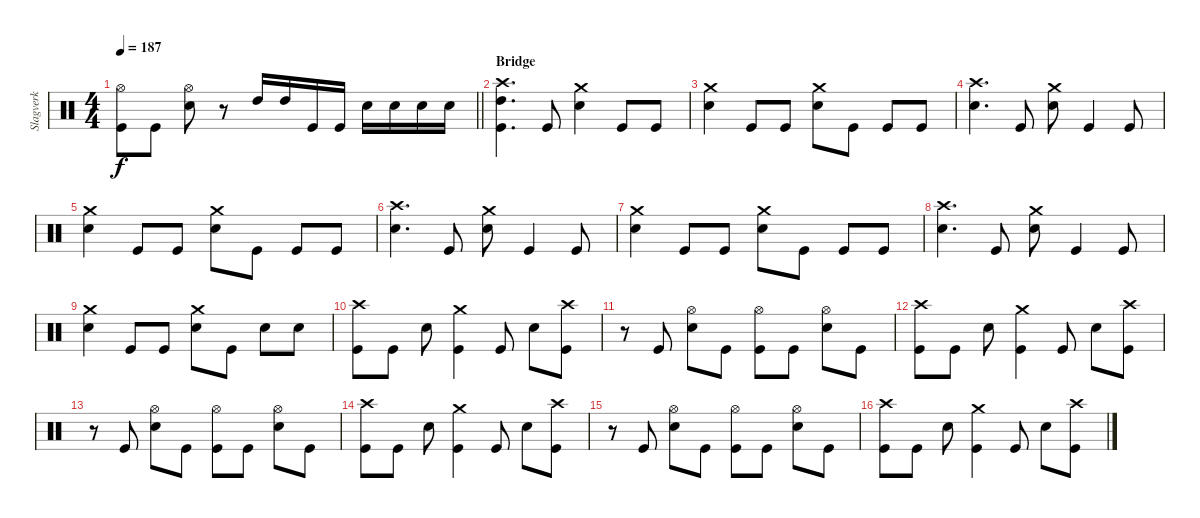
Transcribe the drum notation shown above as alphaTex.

\track ("Slagverk" "Slagverk") {instrument percussion}
\staff {score}
\articulation defaults
\ts (4 4)
\tempo 187
\clef neutral
\barLineRight lightlight
\ks c
("Hi-Hat (open)" "Kick (hit)").8{dy f} "Kick (hit)".8 ("Hi-Hat (open)" "Electric Snare (hit)").8 r.8 "High Tom (hit)".16 "High Tom (hit)".16 "Kick (hit)".16 "Kick (hit)".16 "Electric Snare (hit)".16 "Electric Snare (hit)".16 "Electric Snare (hit)".16 "Electric Snare (hit)".16 |
\section ("" "Bridge")
("Crash high (hit)" "High Tom (hit)" "Kick (hit)").4{d} "Kick (hit)".8 ("Crash medium (hit)" "Electric Snare (hit)").4 "Kick (hit)".8 "Kick (hit)".8 |
("Crash medium (hit)" "Electric Snare (hit)").4 "Kick (hit)".8 "Kick (hit)".8 ("Crash medium (hit)" "Electric Snare (hit)").8 "Kick (hit)".8 "Kick (hit)".8 "Kick (hit)".8 |
("Crash high (hit)" "Electric Snare (hit)").4{d} "Kick (hit)".8 ("Crash medium (hit)" "Electric Snare (hit)").8 "Kick (hit)".4 "Kick (hit)".8 |
("Crash medium (hit)" "Electric Snare (hit)").4 "Kick (hit)".8 "Kick (hit)".8 ("Crash medium (hit)" "Electric Snare (hit)").8 "Kick (hit)".8 "Kick (hit)".8 "Kick (hit)".8 |
("Crash high (hit)" "Electric Snare (hit)").4{d} "Kick (hit)".8 ("Crash medium (hit)" "Electric Snare (hit)").8 "Kick (hit)".4 "Kick (hit)".8 |
("Crash medium (hit)" "Electric Snare (hit)").4 "Kick (hit)".8 "Kick (hit)".8 ("Crash medium (hit)" "Electric Snare (hit)").8 "Kick (hit)".8 "Kick (hit)".8 "Kick (hit)".8 |
("Crash high (hit)" "Electric Snare (hit)").4{d} "Kick (hit)".8 ("Crash medium (hit)" "Electric Snare (hit)").8 "Kick (hit)".4 "Kick (hit)".8 |
("Crash medium (hit)" "Electric Snare (hit)").4 "Kick (hit)".8 "Kick (hit)".8 ("Crash medium (hit)" "Electric Snare (hit)").8 "Kick (hit)".8 "Electric Snare (hit)".8 "Electric Snare (hit)".8 |
("Crash high (hit)" "Kick (hit)").8 "Kick (hit)".8 "Electric Snare (hit)".8 ("Crash medium (hit)" "Kick (hit)").4 "Kick (hit)".8 "Electric Snare (hit)".8 ("Crash high (hit)" "Kick (hit)").8 |
r.8 "Kick (hit)".8 ("Hi-Hat (open)" "Electric Snare (hit)").8 "Kick (hit)".8 ("Hi-Hat (open)" "Kick (hit)").8 "Kick (hit)".8 ("Hi-Hat (open)" "Electric Snare (hit)").8 "Kick (hit)".8 |
("Crash high (hit)" "Kick (hit)").8 "Kick (hit)".8 "Electric Snare (hit)".8 ("Crash medium (hit)" "Kick (hit)").4 "Kick (hit)".8 "Electric Snare (hit)".8 ("Crash high (hit)" "Kick (hit)").8 |
r.8 "Kick (hit)".8 ("Hi-Hat (open)" "Electric Snare (hit)").8 "Kick (hit)".8 ("Hi-Hat (open)" "Kick (hit)").8 "Kick (hit)".8 ("Hi-Hat (open)" "Electric Snare (hit)").8 "Kick (hit)".8 |
("Crash high (hit)" "Kick (hit)").8 "Kick (hit)".8 "Electric Snare (hit)".8 ("Crash medium (hit)" "Kick (hit)").4 "Kick (hit)".8 "Electric Snare (hit)".8 ("Crash high (hit)" "Kick (hit)").8 |
r.8 "Kick (hit)".8 ("Hi-Hat (open)" "Electric Snare (hit)").8 "Kick (hit)".8 ("Hi-Hat (open)" "Kick (hit)").8 "Kick (hit)".8 ("Hi-Hat (open)" "Electric Snare (hit)").8 "Kick (hit)".8 |
("Crash high (hit)" "Kick (hit)").8 "Kick (hit)".8 "Electric Snare (hit)".8 ("Crash medium (hit)" "Kick (hit)").4 "Kick (hit)".8 "Electric Snare (hit)".8 ("Crash high (hit)" "Kick (hit)").8
